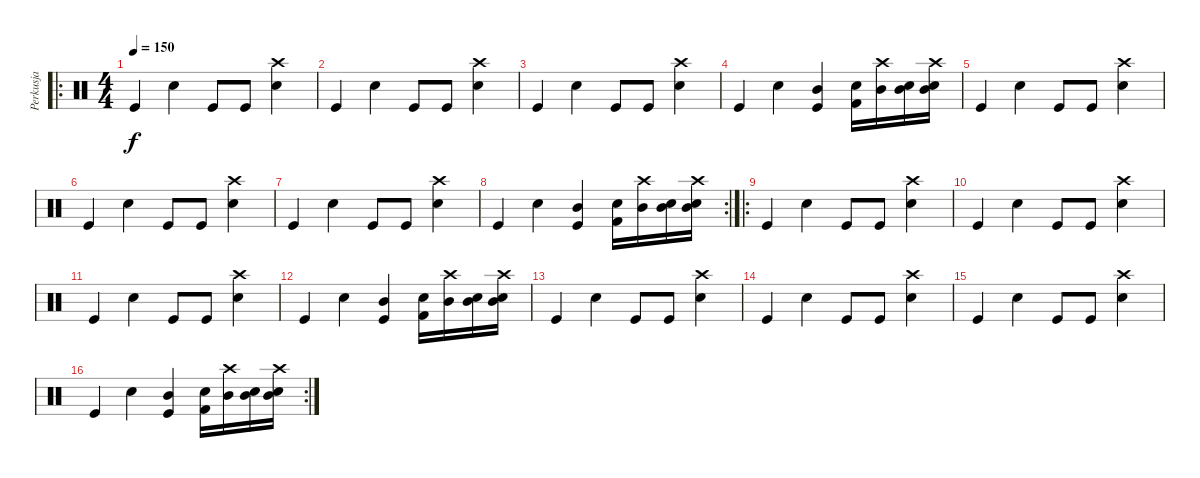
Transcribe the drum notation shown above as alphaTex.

\track ("Perkusja" "Perkusja") {instrument percussion}
\staff {score}
\articulation defaults
\ro
\ts (4 4)
\tempo 150
\clef neutral
\ks c "Kick (hit)".4{dy f} "Electric Snare (hit)".4 "Kick (hit)".8 "Kick (hit)".8
("Crash high (hit)" "Electric Snare (hit)").4 |
"Kick (hit)".4 "Electric Snare (hit)".4 "Kick (hit)".8 "Kick (hit)".8 ("Crash high (hit)" "Electric Snare (hit)").4 |
"Kick (hit)".4 "Electric Snare (hit)".4 "Kick (hit)".8 "Kick (hit)".8 ("Crash high (hit)" "Electric Snare (hit)").4 |
"Kick (hit)".4 "Electric Snare (hit)".4 ("Mid Tom (hit)" "Kick (hit)").4 ("Electric Snare (hit)" "Kick (hit) 2").16 ("Crash high (hit)" "Mid Tom (hit)").16 ("Electric Snare (hit)" "Mid Tom (hit)").16 ("Electric Snare (hit)" "Mid Tom (hit)" "Crash high (hit)").16 |
"Kick (hit)".4 "Electric Snare (hit)".4 "Kick (hit)".8 "Kick (hit)".8 ("Crash high (hit)" "Electric Snare (hit)").4 |
"Kick (hit)".4 "Electric Snare (hit)".4 "Kick (hit)".8 "Kick (hit)".8 ("Crash high (hit)" "Electric Snare (hit)").4 |
"Kick (hit)".4 "Electric Snare (hit)".4 "Kick (hit)".8 "Kick (hit)".8 ("Crash high (hit)" "Electric Snare (hit)").4 |
\rc 2 "Kick (hit)".4 "Electric Snare (hit)".4
("Mid Tom (hit)" "Kick (hit)").4 ("Electric Snare (hit)" "Kick (hit) 2").16 ("Crash high (hit)" "Mid Tom (hit)").16 ("Electric Snare (hit)" "Mid Tom (hit)").16 ("Electric Snare (hit)" "Mid Tom (hit)" "Crash high (hit)").16 |
\ro "Kick (hit)".4 "Electric Snare (hit)".4 "Kick (hit)".8 "Kick (hit)".8
("Crash high (hit)" "Electric Snare (hit)").4 |
"Kick (hit)".4 "Electric Snare (hit)".4 "Kick (hit)".8 "Kick (hit)".8 ("Crash high (hit)" "Electric Snare (hit)").4 |
"Kick (hit)".4 "Electric Snare (hit)".4 "Kick (hit)".8 "Kick (hit)".8 ("Crash high (hit)" "Electric Snare (hit)").4 |
"Kick (hit)".4 "Electric Snare (hit)".4 ("Mid Tom (hit)" "Kick (hit)").4 ("Electric Snare (hit)" "Kick (hit) 2").16 ("Crash high (hit)" "Mid Tom (hit)").16 ("Electric Snare (hit)" "Mid Tom (hit)").16 ("Electric Snare (hit)" "Mid Tom (hit)" "Crash high (hit)").16 |
"Kick (hit)".4 "Electric Snare (hit)".4 "Kick (hit)".8 "Kick (hit)".8 ("Crash high (hit)" "Electric Snare (hit)").4 |
"Kick (hit)".4 "Electric Snare (hit)".4 "Kick (hit)".8 "Kick (hit)".8 ("Crash high (hit)" "Electric Snare (hit)").4 |
"Kick (hit)".4 "Electric Snare (hit)".4 "Kick (hit)".8 "Kick (hit)".8 ("Crash high (hit)" "Electric Snare (hit)").4 |
\rc 2 "Kick (hit)".4 "Electric Snare (hit)".4
("Mid Tom (hit)" "Kick (hit)").4 ("Electric Snare (hit)" "Kick (hit) 2").16 ("Crash high (hit)" "Mid Tom (hit)").16 ("Electric Snare (hit)" "Mid Tom (hit)").16 ("Electric Snare (hit)" "Mid Tom (hit)" "Crash high (hit)").16
